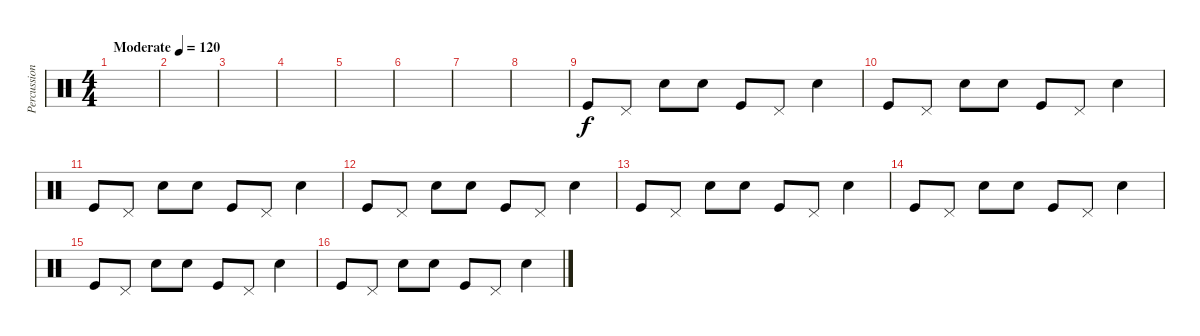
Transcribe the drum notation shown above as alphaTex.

\track ("Percussion" "Percussion") {instrument percussion}
\staff {score}
\articulation defaults
\ts (4 4)
\tempo (120 "Moderate")
\clef neutral
\ks c
|
|
|
|
|
|
|
|
"Kick (hit)".8 "Pedal Hi-Hat (hit)".8 "Hand Clap (hit)".8 "Hand Clap (hit)".8 "Kick (hit)".8 "Pedal Hi-Hat (hit)".8 "Hand Clap (hit)".4 |
"Kick (hit)".8 "Pedal Hi-Hat (hit)".8 "Hand Clap (hit)".8 "Hand Clap (hit)".8 "Kick (hit)".8 "Pedal Hi-Hat (hit)".8 "Hand Clap (hit)".4 |
"Kick (hit)".8 "Pedal Hi-Hat (hit)".8 "Hand Clap (hit)".8 "Hand Clap (hit)".8 "Kick (hit)".8 "Pedal Hi-Hat (hit)".8 "Hand Clap (hit)".4 |
"Kick (hit)".8 "Pedal Hi-Hat (hit)".8 "Hand Clap (hit)".8 "Hand Clap (hit)".8 "Kick (hit)".8 "Pedal Hi-Hat (hit)".8 "Hand Clap (hit)".4 |
"Kick (hit)".8 "Pedal Hi-Hat (hit)".8 "Hand Clap (hit)".8 "Hand Clap (hit)".8 "Kick (hit)".8 "Pedal Hi-Hat (hit)".8 "Hand Clap (hit)".4 |
"Kick (hit)".8 "Pedal Hi-Hat (hit)".8 "Hand Clap (hit)".8 "Hand Clap (hit)".8 "Kick (hit)".8 "Pedal Hi-Hat (hit)".8 "Hand Clap (hit)".4 |
"Kick (hit)".8 "Pedal Hi-Hat (hit)".8 "Hand Clap (hit)".8 "Hand Clap (hit)".8 "Kick (hit)".8 "Pedal Hi-Hat (hit)".8 "Hand Clap (hit)".4 |
"Kick (hit)".8 "Pedal Hi-Hat (hit)".8 "Hand Clap (hit)".8 "Hand Clap (hit)".8 "Kick (hit)".8 "Pedal Hi-Hat (hit)".8 "Hand Clap (hit)".4
